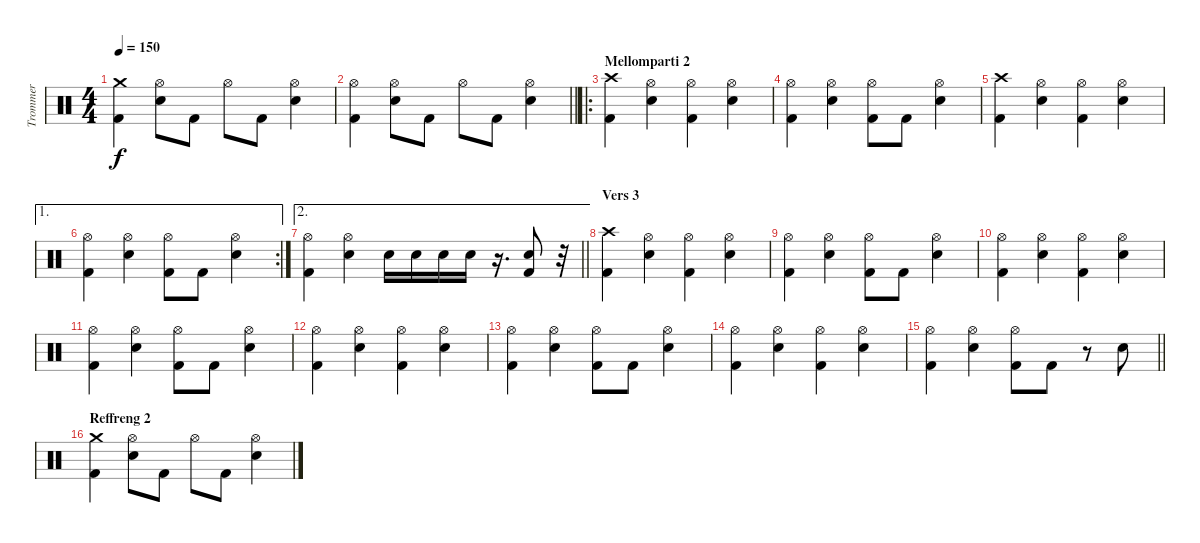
\track ("Trommer" "Trommer") {instrument percussion}
\staff {score}
\articulation defaults
\ts (4 4)
\tempo 150
\clef neutral
\ks c
("Crash medium (hit)" "Kick (hit) 2").4{dy f} ("Hi-Hat (open)" "Snare (hit) 2").8 "Kick (hit) 2".8 "Hi-Hat (open)".8 "Kick (hit) 2".8 ("Hi-Hat (open)" "Snare (hit) 2").4 |
\barLineRight lightlight
("Hi-Hat (open)" "Kick (hit) 2").4 ("Hi-Hat (open)" "Snare (hit) 2").8 "Kick (hit) 2".8 "Hi-Hat (open)".8 "Kick (hit) 2".8 ("Hi-Hat (open)" "Snare (hit) 2").4 |
\ro
\section ("" "Mellomparti 2")
("Crash high (hit)" "Kick (hit) 2").4 ("Hi-Hat (open)" "Snare (hit) 2").4 ("Hi-Hat (open)" "Kick (hit) 2").4 ("Hi-Hat (open)" "Snare (hit) 2").4 |
("Hi-Hat (open)" "Kick (hit) 2").4 ("Hi-Hat (open)" "Snare (hit) 2").4 ("Hi-Hat (open)" "Kick (hit) 2").8 "Kick (hit) 2".8 ("Hi-Hat (open)" "Snare (hit) 2").4 |
("Crash high (hit)" "Kick (hit) 2").4 ("Hi-Hat (open)" "Snare (hit) 2").4 ("Hi-Hat (open)" "Kick (hit) 2").4 ("Hi-Hat (open)" "Snare (hit) 2").4 |
\ae 1
\rc 2
("Hi-Hat (open)" "Kick (hit) 2").4 ("Hi-Hat (open)" "Snare (hit) 2").4 ("Hi-Hat (open)" "Kick (hit) 2").8 "Kick (hit) 2".8 ("Hi-Hat (open)" "Snare (hit) 2").4 |
\ae 2
\barLineRight lightlight
("Hi-Hat (open)" "Kick (hit) 2").4 ("Hi-Hat (open)" "Snare (hit) 2").4 "Snare (hit) 2".16 "Snare (hit) 2".16 "Snare (hit) 2".16 "Snare (hit) 2".16 r.16{d} ("Snare (hit) 2" "Kick (hit) 2").8 r.32 |
\section ("" "Vers 3")
("Crash high (hit)" "Kick (hit) 2").4 ("Hi-Hat (open)" "Snare (hit) 2").4 ("Hi-Hat (open)" "Kick (hit) 2").4 ("Hi-Hat (open)" "Snare (hit) 2").4 |
("Hi-Hat (open)" "Kick (hit) 2").4 ("Hi-Hat (open)" "Snare (hit) 2").4 ("Hi-Hat (open)" "Kick (hit) 2").8 "Kick (hit) 2".8 ("Hi-Hat (open)" "Snare (hit) 2").4 |
("Hi-Hat (open)" "Kick (hit) 2").4 ("Hi-Hat (open)" "Snare (hit) 2").4 ("Hi-Hat (open)" "Kick (hit) 2").4 ("Hi-Hat (open)" "Snare (hit) 2").4 |
("Hi-Hat (open)" "Kick (hit) 2").4 ("Hi-Hat (open)" "Snare (hit) 2").4 ("Hi-Hat (open)" "Kick (hit) 2").8 "Kick (hit) 2".8 ("Hi-Hat (open)" "Snare (hit) 2").4 |
("Hi-Hat (open)" "Kick (hit) 2").4 ("Hi-Hat (open)" "Snare (hit) 2").4 ("Hi-Hat (open)" "Kick (hit) 2").4 ("Hi-Hat (open)" "Snare (hit) 2").4 |
("Hi-Hat (open)" "Kick (hit) 2").4 ("Hi-Hat (open)" "Snare (hit) 2").4 ("Hi-Hat (open)" "Kick (hit) 2").8 "Kick (hit) 2".8 ("Hi-Hat (open)" "Snare (hit) 2").4 |
("Hi-Hat (open)" "Kick (hit) 2").4 ("Hi-Hat (open)" "Snare (hit) 2").4 ("Hi-Hat (open)" "Kick (hit) 2").4 ("Hi-Hat (open)" "Snare (hit) 2").4 |
\barLineRight lightlight
("Hi-Hat (open)" "Kick (hit) 2").4 ("Hi-Hat (open)" "Snare (hit) 2").4 ("Hi-Hat (open)" "Kick (hit) 2").8 "Kick (hit) 2".8 r.8 "Snare (hit) 2".8 |
\section ("" "Reffreng 2")
("Crash medium (hit)" "Kick (hit) 2").4 ("Hi-Hat (open)" "Snare (hit) 2").8 "Kick (hit) 2".8 "Hi-Hat (open)".8 "Kick (hit) 2".8 ("Hi-Hat (open)" "Snare (hit) 2").4
